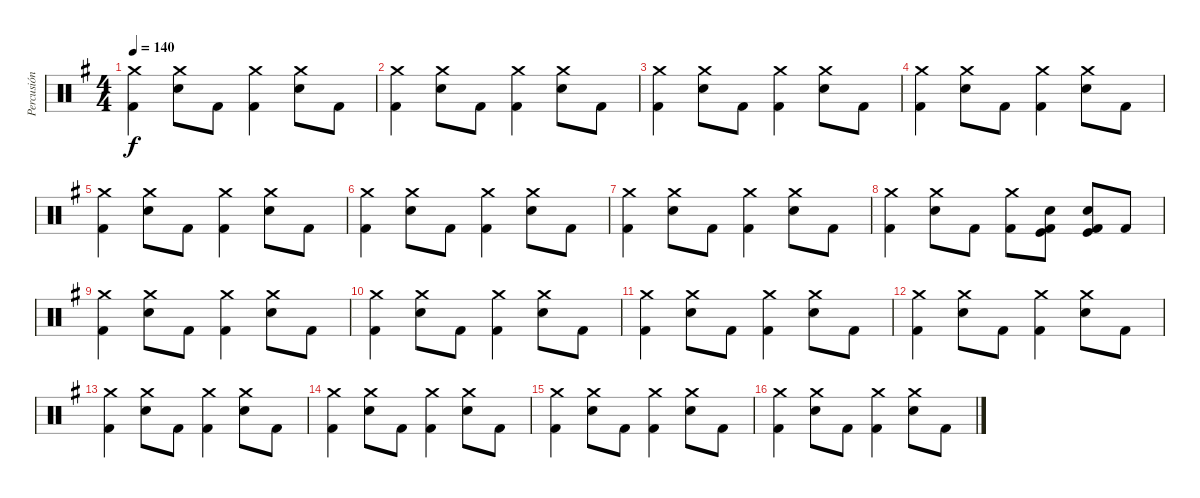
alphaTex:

\track ("Percusión" "Percusión") {instrument percussion}
\staff {score}
\articulation defaults
\ts (4 4)
\tempo 140
\clef neutral
\ks g
("Crash medium (hit)" "Kick (hit) 2").4{dy f} ("Crash medium (hit)" "Snare (hit) 2").8 "Kick (hit) 2".8 ("Crash medium (hit)" "Kick (hit) 2").4 ("Crash medium (hit)" "Snare (hit) 2").8 "Kick (hit) 2".8 |
("Crash medium (hit)" "Kick (hit) 2").4 ("Crash medium (hit)" "Snare (hit) 2").8 "Kick (hit) 2".8 ("Crash medium (hit)" "Kick (hit) 2").4 ("Crash medium (hit)" "Snare (hit) 2").8 "Kick (hit) 2".8 |
("Crash medium (hit)" "Kick (hit) 2").4 ("Crash medium (hit)" "Snare (hit) 2").8 "Kick (hit) 2".8 ("Crash medium (hit)" "Kick (hit) 2").4 ("Crash medium (hit)" "Snare (hit) 2").8 "Kick (hit) 2".8 |
("Crash medium (hit)" "Kick (hit) 2").4 ("Crash medium (hit)" "Snare (hit) 2").8 "Kick (hit) 2".8 ("Crash medium (hit)" "Kick (hit) 2").4 ("Crash medium (hit)" "Snare (hit) 2").8 "Kick (hit) 2".8 |
("Crash medium (hit)" "Kick (hit) 2").4 ("Crash medium (hit)" "Snare (hit) 2").8 "Kick (hit) 2".8 ("Crash medium (hit)" "Kick (hit) 2").4 ("Crash medium (hit)" "Snare (hit) 2").8 "Kick (hit) 2".8 |
("Crash medium (hit)" "Kick (hit) 2").4 ("Crash medium (hit)" "Snare (hit) 2").8 "Kick (hit) 2".8 ("Crash medium (hit)" "Kick (hit) 2").4 ("Crash medium (hit)" "Snare (hit) 2").8 "Kick (hit) 2".8 |
("Crash medium (hit)" "Kick (hit) 2").4 ("Crash medium (hit)" "Snare (hit) 2").8 "Kick (hit) 2".8 ("Crash medium (hit)" "Kick (hit) 2").4 ("Crash medium (hit)" "Snare (hit) 2").8 "Kick (hit) 2".8 |
("Crash medium (hit)" "Kick (hit) 2").4 ("Crash medium (hit)" "Snare (hit) 2").8 "Kick (hit) 2".8 ("Crash medium (hit)" "Kick (hit) 2").8 ("Snare (hit) 2" "Kick (hit)" "Kick (hit) 2").8 ("Snare (hit) 2" "Kick (hit)" "Kick (hit) 2").8 "Kick (hit) 2".8 |
("Crash medium (hit)" "Kick (hit) 2").4 ("Crash medium (hit)" "Snare (hit) 2").8 "Kick (hit) 2".8 ("Crash medium (hit)" "Kick (hit) 2").4 ("Crash medium (hit)" "Snare (hit) 2").8 "Kick (hit) 2".8 |
("Crash medium (hit)" "Kick (hit) 2").4 ("Crash medium (hit)" "Snare (hit) 2").8 "Kick (hit) 2".8 ("Crash medium (hit)" "Kick (hit) 2").4 ("Crash medium (hit)" "Snare (hit) 2").8 "Kick (hit) 2".8 |
("Crash medium (hit)" "Kick (hit) 2").4 ("Crash medium (hit)" "Snare (hit) 2").8 "Kick (hit) 2".8 ("Crash medium (hit)" "Kick (hit) 2").4 ("Crash medium (hit)" "Snare (hit) 2").8 "Kick (hit) 2".8 |
("Crash medium (hit)" "Kick (hit) 2").4 ("Crash medium (hit)" "Snare (hit) 2").8 "Kick (hit) 2".8 ("Crash medium (hit)" "Kick (hit) 2").4 ("Crash medium (hit)" "Snare (hit) 2").8 "Kick (hit) 2".8 |
("Crash medium (hit)" "Kick (hit) 2").4 ("Crash medium (hit)" "Snare (hit) 2").8 "Kick (hit) 2".8 ("Crash medium (hit)" "Kick (hit) 2").4 ("Crash medium (hit)" "Snare (hit) 2").8 "Kick (hit) 2".8 |
("Crash medium (hit)" "Kick (hit) 2").4 ("Crash medium (hit)" "Snare (hit) 2").8 "Kick (hit) 2".8 ("Crash medium (hit)" "Kick (hit) 2").4 ("Crash medium (hit)" "Snare (hit) 2").8 "Kick (hit) 2".8 |
("Crash medium (hit)" "Kick (hit) 2").4 ("Crash medium (hit)" "Snare (hit) 2").8 "Kick (hit) 2".8 ("Crash medium (hit)" "Kick (hit) 2").4 ("Crash medium (hit)" "Snare (hit) 2").8 "Kick (hit) 2".8 |
("Crash medium (hit)" "Kick (hit) 2").4{volume 12} ("Crash medium (hit)" "Snare (hit) 2").8 "Kick (hit) 2".8 ("Crash medium (hit)" "Kick (hit) 2").4 ("Crash medium (hit)" "Snare (hit) 2").8 "Kick (hit) 2".8
